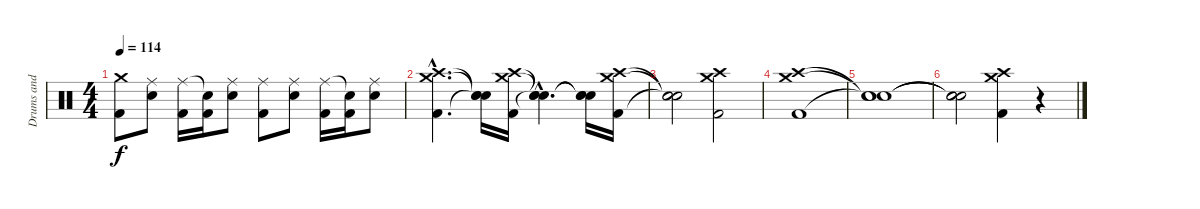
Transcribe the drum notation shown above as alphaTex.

\track ("Drums and Percussion" "Drums and ") {instrument percussion}
\staff {score}
\articulation defaults
\ts (4 4)
\tempo 114
\clef neutral
\ks c
("Crash medium (hit)" "Kick (hit) 2").8{dy f} ("Ride (middle)" "Snare (hit) 2").8 ("Ride (middle)" "Kick (hit) 2").16 ("Snare (hit)"{t} "Kick (hit) 2").16 ("Ride (middle)" "Snare (hit) 2").8 ("Ride (middle)" "Kick (hit) 2").8 ("Ride (middle)" "Snare (hit) 2").8 ("Ride (middle)" "Kick (hit) 2").16 ("Snare (hit)"{t} "Kick (hit) 2").16 ("Ride (middle)" "Snare (hit) 2").8 |
("Crash medium (hit)"{hac} "Crash high (hit)"{hac} "Kick (hit) 2"{hac}).4{d} ("Snare (hit)"{t} "Snare (hit)"{t} "Snare (hit)"{t}).16 ("Crash medium (hit)" "Crash high (hit)" "Kick (hit) 2").16 ("Snare (hit)"{hac t} "Snare (hit)"{hac t} "Snare (hit)"{hac t}).4{d} ("Snare (hit)"{t} "Snare (hit)"{t} "Snare (hit)"{t}).16 ("Crash medium (hit)" "Crash high (hit)" "Kick (hit) 2").16 |
("Snare (hit)"{t} "Snare (hit)"{t} "Snare (hit)"{t}).2 ("Crash medium (hit)" "Crash high (hit)" "Kick (hit) 2").2 |
("Crash medium (hit)" "Crash high (hit)" "Kick (hit) 2").1 |
("Snare (hit)"{t} "Snare (hit)"{t} "Snare (hit)"{t}).1 |
("Snare (hit)"{t} "Snare (hit)"{t} "Snare (hit)"{t}).2 ("Crash medium (hit)" "Crash high (hit)" "Kick (hit) 2").4 r.4
